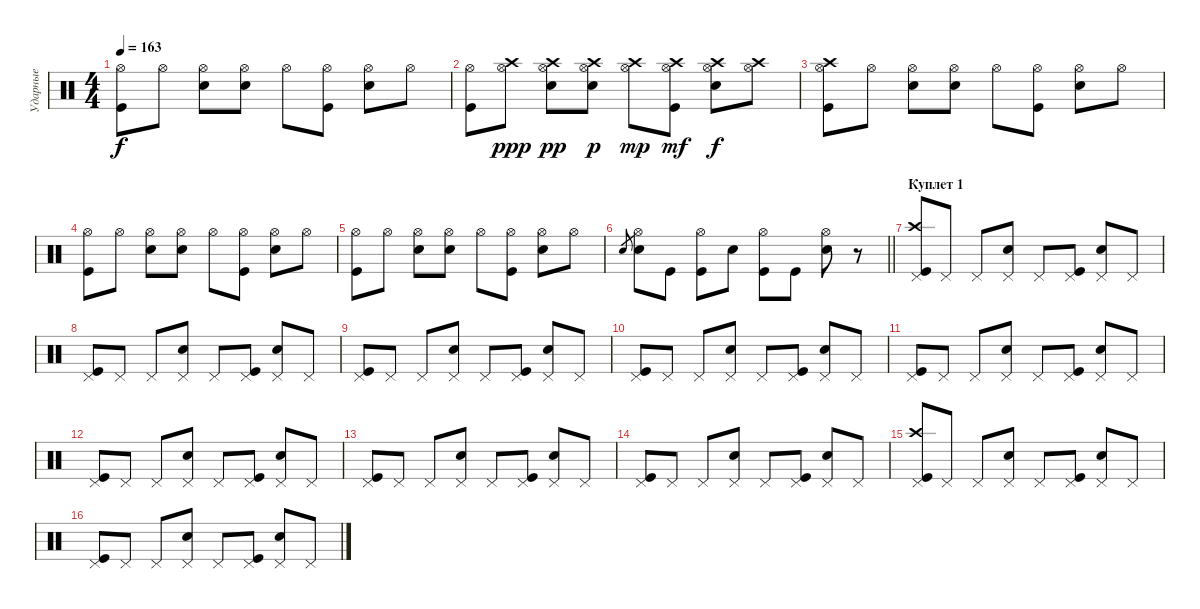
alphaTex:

\track ("Ударные" "Ударные") {instrument percussion}
\staff {score}
\articulation defaults
\ts (4 4)
\tempo 163
\clef neutral
\ks c
("Kick (hit)" "Hi-Hat (open)").8{dy f} "Hi-Hat (open)".8 ("Hi-Hat (open)" "Snare (hit) 2").8 ("Hi-Hat (open)" "Snare (hit) 2").8 "Hi-Hat (open)".8 ("Kick (hit)" "Hi-Hat (open)").8 ("Hi-Hat (open)" "Snare (hit) 2").8 "Hi-Hat (open)".8 |
("Kick (hit)" "Hi-Hat (open)").8 ("Hi-Hat (open)" "Crash high (hit)").8{dy ppp} ("Hi-Hat (open)" "Snare (hit) 2" "Crash high (hit)").8{dy pp} ("Hi-Hat (open)" "Snare (hit) 2" "Crash high (hit)").8{dy p} ("Hi-Hat (open)" "Crash high (hit)").8{dy mp} ("Kick (hit)" "Hi-Hat (open)" "Crash high (hit)").8{dy mf} ("Hi-Hat (open)" "Snare (hit) 2" "Crash high (hit)").8{dy f} ("Hi-Hat (open)" "Crash high (hit)").8 |
("Kick (hit)" "Hi-Hat (open)" "Crash high (hit)").8 "Hi-Hat (open)".8 ("Hi-Hat (open)" "Snare (hit) 2").8 ("Hi-Hat (open)" "Snare (hit) 2").8 "Hi-Hat (open)".8 ("Kick (hit)" "Hi-Hat (open)").8 ("Hi-Hat (open)" "Snare (hit) 2").8 "Hi-Hat (open)".8 |
("Kick (hit)" "Hi-Hat (open)").8 "Hi-Hat (open)".8 ("Hi-Hat (open)" "Snare (hit) 2").8 ("Hi-Hat (open)" "Snare (hit) 2").8 "Hi-Hat (open)".8 ("Kick (hit)" "Hi-Hat (open)").8 ("Hi-Hat (open)" "Snare (hit) 2").8 "Hi-Hat (open)".8 |
("Kick (hit)" "Hi-Hat (open)").8 "Hi-Hat (open)".8 ("Hi-Hat (open)" "Snare (hit) 2").8 ("Hi-Hat (open)" "Snare (hit) 2").8 "Hi-Hat (open)".8 ("Kick (hit)" "Hi-Hat (open)").8 ("Hi-Hat (open)" "Snare (hit) 2").8 "Hi-Hat (open)".8 |
\barLineRight lightlight "Snare (hit) 2".8{gr}
("Hi-Hat (open)" "Snare (hit) 2").8 "Kick (hit)".8 ("Kick (hit)" "Hi-Hat (open)").8 "Snare (hit) 2".8 ("Kick (hit)" "Hi-Hat (open)").8 "Kick (hit)".8 ("Hi-Hat (open)" "Snare (hit) 2").8 r.8 |
\section ("" "Куплет 1")
("Kick (hit)" "Pedal Hi-Hat (hit)" "Crash high (hit)").8 "Pedal Hi-Hat (hit)".8 "Pedal Hi-Hat (hit)".8 ("Pedal Hi-Hat (hit)" "Snare (hit) 2").8 "Pedal Hi-Hat (hit)".8 ("Kick (hit)" "Pedal Hi-Hat (hit)").8 ("Pedal Hi-Hat (hit)" "Snare (hit) 2").8 "Pedal Hi-Hat (hit)".8 |
("Kick (hit)" "Pedal Hi-Hat (hit)").8 "Pedal Hi-Hat (hit)".8 "Pedal Hi-Hat (hit)".8 ("Pedal Hi-Hat (hit)" "Snare (hit) 2").8 "Pedal Hi-Hat (hit)".8 ("Kick (hit)" "Pedal Hi-Hat (hit)").8 ("Pedal Hi-Hat (hit)" "Snare (hit) 2").8 "Pedal Hi-Hat (hit)".8 |
("Kick (hit)" "Pedal Hi-Hat (hit)").8 "Pedal Hi-Hat (hit)".8 "Pedal Hi-Hat (hit)".8 ("Pedal Hi-Hat (hit)" "Snare (hit) 2").8 "Pedal Hi-Hat (hit)".8 ("Kick (hit)" "Pedal Hi-Hat (hit)").8 ("Pedal Hi-Hat (hit)" "Snare (hit) 2").8 "Pedal Hi-Hat (hit)".8 |
("Kick (hit)" "Pedal Hi-Hat (hit)").8 "Pedal Hi-Hat (hit)".8 "Pedal Hi-Hat (hit)".8 ("Pedal Hi-Hat (hit)" "Snare (hit) 2").8 "Pedal Hi-Hat (hit)".8 ("Kick (hit)" "Pedal Hi-Hat (hit)").8 ("Pedal Hi-Hat (hit)" "Snare (hit) 2").8 "Pedal Hi-Hat (hit)".8 |
("Kick (hit)" "Pedal Hi-Hat (hit)").8 "Pedal Hi-Hat (hit)".8 "Pedal Hi-Hat (hit)".8 ("Pedal Hi-Hat (hit)" "Snare (hit) 2").8 "Pedal Hi-Hat (hit)".8 ("Kick (hit)" "Pedal Hi-Hat (hit)").8 ("Pedal Hi-Hat (hit)" "Snare (hit) 2").8 "Pedal Hi-Hat (hit)".8 |
("Kick (hit)" "Pedal Hi-Hat (hit)").8 "Pedal Hi-Hat (hit)".8 "Pedal Hi-Hat (hit)".8 ("Pedal Hi-Hat (hit)" "Snare (hit) 2").8 "Pedal Hi-Hat (hit)".8 ("Kick (hit)" "Pedal Hi-Hat (hit)").8 ("Pedal Hi-Hat (hit)" "Snare (hit) 2").8 "Pedal Hi-Hat (hit)".8 |
("Kick (hit)" "Pedal Hi-Hat (hit)").8 "Pedal Hi-Hat (hit)".8 "Pedal Hi-Hat (hit)".8 ("Pedal Hi-Hat (hit)" "Snare (hit) 2").8 "Pedal Hi-Hat (hit)".8 ("Kick (hit)" "Pedal Hi-Hat (hit)").8 ("Pedal Hi-Hat (hit)" "Snare (hit) 2").8 "Pedal Hi-Hat (hit)".8 |
("Kick (hit)" "Pedal Hi-Hat (hit)").8 "Pedal Hi-Hat (hit)".8 "Pedal Hi-Hat (hit)".8 ("Pedal Hi-Hat (hit)" "Snare (hit) 2").8 "Pedal Hi-Hat (hit)".8 ("Kick (hit)" "Pedal Hi-Hat (hit)").8 ("Pedal Hi-Hat (hit)" "Snare (hit) 2").8 "Pedal Hi-Hat (hit)".8 |
("Kick (hit)" "Pedal Hi-Hat (hit)" "Crash high (hit)").8 "Pedal Hi-Hat (hit)".8 "Pedal Hi-Hat (hit)".8 ("Pedal Hi-Hat (hit)" "Snare (hit) 2").8 "Pedal Hi-Hat (hit)".8 ("Kick (hit)" "Pedal Hi-Hat (hit)").8 ("Pedal Hi-Hat (hit)" "Snare (hit) 2").8 "Pedal Hi-Hat (hit)".8 |
("Kick (hit)" "Pedal Hi-Hat (hit)").8 "Pedal Hi-Hat (hit)".8 "Pedal Hi-Hat (hit)".8 ("Pedal Hi-Hat (hit)" "Snare (hit) 2").8 "Pedal Hi-Hat (hit)".8 ("Kick (hit)" "Pedal Hi-Hat (hit)").8 ("Pedal Hi-Hat (hit)" "Snare (hit) 2").8 "Pedal Hi-Hat (hit)".8
